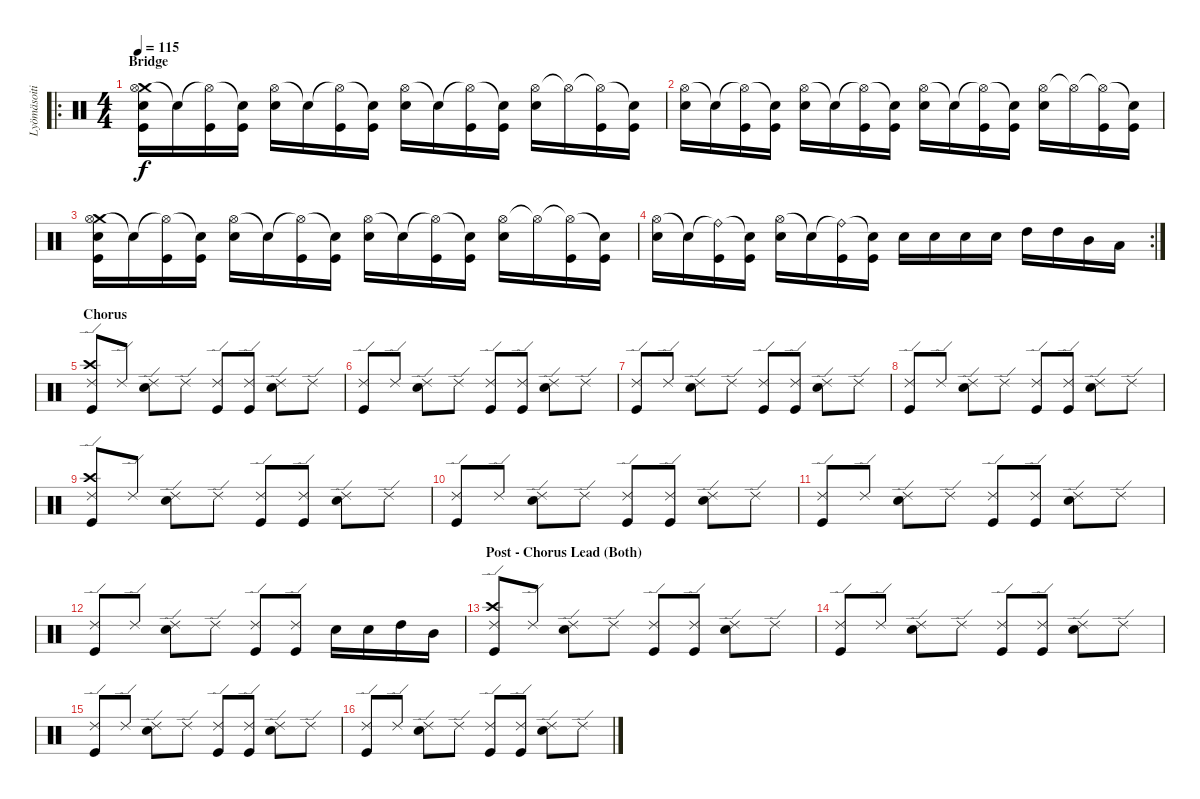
\track ("Lyömäsoitin" "Lyömäsoiti") {instrument percussion}
\staff {score}
\articulation defaults
\ro
\ts (4 4)
\section ("" "Bridge")
\tempo 115
\clef neutral
\ks c
("Crash medium (hit)" "Hi-Hat (open)" "Snare (hit) 2" "Kick (hit)").16{dy f} "Snare (hit)"{t}.16 ("Hi-Hat (open)"{t} "Kick (hit)").16 ("Snare (hit)"{t} "Kick (hit)").16 ("Hi-Hat (open)" "Snare (hit) 2").16 "Snare (hit)"{t}.16 ("Hi-Hat (open)"{t} "Kick (hit)").16 ("Snare (hit)"{t} "Kick (hit)").16 ("Hi-Hat (open)" "Snare (hit) 2").16 "Snare (hit)"{t}.16 ("Hi-Hat (open)"{t} "Kick (hit)").16 ("Snare (hit)"{t} "Kick (hit)").16 ("Hi-Hat (open)" "Snare (hit) 2").16 "Hi-Hat (open)"{t}.16 ("Hi-Hat (open)"{t} "Kick (hit)").16 ("Snare (hit)"{t} "Kick (hit)").16 |
("Hi-Hat (open)" "Snare (hit) 2").16 "Snare (hit)"{t}.16 ("Hi-Hat (open)"{t} "Kick (hit)").16 ("Snare (hit)"{t} "Kick (hit)").16 ("Hi-Hat (open)" "Snare (hit) 2").16 "Snare (hit)"{t}.16 ("Hi-Hat (open)"{t} "Kick (hit)").16 ("Snare (hit)"{t} "Kick (hit)").16 ("Hi-Hat (open)" "Snare (hit) 2").16 "Snare (hit)"{t}.16 ("Hi-Hat (open)"{t} "Kick (hit)").16 ("Snare (hit)"{t} "Kick (hit)").16 ("Hi-Hat (open)" "Snare (hit) 2").16 "Hi-Hat (open)"{t}.16 ("Hi-Hat (open)"{t} "Kick (hit)").16 ("Snare (hit)"{t} "Kick (hit)").16 |
("Crash medium (hit)" "Hi-Hat (open)" "Snare (hit) 2" "Kick (hit)").16 "Snare (hit)"{t}.16 ("Hi-Hat (open)"{t} "Kick (hit)").16 ("Snare (hit)"{t} "Kick (hit)").16 ("Hi-Hat (open)" "Snare (hit) 2").16 "Snare (hit)"{t}.16 ("Hi-Hat (open)"{t} "Kick (hit)").16 ("Snare (hit)"{t} "Kick (hit)").16 ("Hi-Hat (open)" "Snare (hit) 2").16 "Snare (hit)"{t}.16 ("Hi-Hat (open)"{t} "Kick (hit)").16 ("Snare (hit)"{t} "Kick (hit)").16 ("Hi-Hat (open)" "Snare (hit) 2").16 "Hi-Hat (open)"{t}.16 ("Hi-Hat (open)"{t} "Kick (hit)").16 ("Snare (hit)"{t} "Kick (hit)").16 |
\rc 2
("Hi-Hat (open)" "Snare (hit) 2").16 "Snare (hit)"{t}.16 ("Ride (bell)"{t} "Kick (hit)").16 ("Snare (hit)"{t} "Kick (hit)").16 ("Hi-Hat (open)" "Snare (hit) 2").16 "Snare (hit)"{t}.16 ("Ride (bell)"{t} "Kick (hit)").16 ("Snare (hit)"{t} "Kick (hit)").16 "Snare (hit) 2".16 "Snare (hit) 2".16 "Snare (hit) 2".16 "Snare (hit) 2".16 "High Tom (hit)".16 "High Tom (hit)".16 "Mid Tom (hit)".16 "Low Tom (hit)".16 |
\section ("" "Chorus")
("Crash high (hit)" "Ride (edge) 2" "Kick (hit)").8 "Ride (edge) 2".8 ("Ride (edge) 2" "Snare (hit) 2").8 "Ride (edge) 2".8 ("Ride (edge) 2" "Kick (hit)").8 ("Ride (edge) 2" "Kick (hit)").8 ("Ride (edge) 2" "Snare (hit) 2").8 "Ride (edge) 2".8 |
("Ride (edge) 2" "Kick (hit)").8 "Ride (edge) 2".8 ("Ride (edge) 2" "Snare (hit) 2").8 "Ride (edge) 2".8 ("Ride (edge) 2" "Kick (hit)").8 ("Ride (edge) 2" "Kick (hit)").8 ("Ride (edge) 2" "Snare (hit) 2").8 "Ride (edge) 2".8 |
("Ride (edge) 2" "Kick (hit)").8 "Ride (edge) 2".8 ("Ride (edge) 2" "Snare (hit) 2").8 "Ride (edge) 2".8 ("Ride (edge) 2" "Kick (hit)").8 ("Ride (edge) 2" "Kick (hit)").8 ("Ride (edge) 2" "Snare (hit) 2").8 "Ride (edge) 2".8 |
("Ride (edge) 2" "Kick (hit)").8 "Ride (edge) 2".8 ("Ride (edge) 2" "Snare (hit) 2").8 "Ride (edge) 2".8 ("Ride (edge) 2" "Kick (hit)").8 ("Ride (edge) 2" "Kick (hit)").8 ("Ride (edge) 2" "Snare (hit) 2").8 "Ride (edge) 2".8 |
("Crash high (hit)" "Ride (edge) 2" "Kick (hit)").8 "Ride (edge) 2".8 ("Ride (edge) 2" "Snare (hit) 2").8 "Ride (edge) 2".8 ("Ride (edge) 2" "Kick (hit)").8 ("Ride (edge) 2" "Kick (hit)").8 ("Ride (edge) 2" "Snare (hit) 2").8 "Ride (edge) 2".8 |
("Ride (edge) 2" "Kick (hit)").8 "Ride (edge) 2".8 ("Ride (edge) 2" "Snare (hit) 2").8 "Ride (edge) 2".8 ("Ride (edge) 2" "Kick (hit)").8 ("Ride (edge) 2" "Kick (hit)").8 ("Ride (edge) 2" "Snare (hit) 2").8 "Ride (edge) 2".8 |
("Ride (edge) 2" "Kick (hit)").8 "Ride (edge) 2".8 ("Ride (edge) 2" "Snare (hit) 2").8 "Ride (edge) 2".8 ("Ride (edge) 2" "Kick (hit)").8 ("Ride (edge) 2" "Kick (hit)").8 ("Ride (edge) 2" "Snare (hit) 2").8 "Ride (edge) 2".8 |
("Ride (edge) 2" "Kick (hit)").8 "Ride (edge) 2".8 ("Ride (edge) 2" "Snare (hit) 2").8 "Ride (edge) 2".8 ("Ride (edge) 2" "Kick (hit)").8 ("Ride (edge) 2" "Kick (hit)").8 "Snare (hit) 2".16 "Snare (hit) 2".16 "High Tom (hit)".16 "Mid Tom (hit)".16 |
\section ("" "Post - Chorus Lead (Both)")
("Crash high (hit)" "Ride (edge) 2" "Kick (hit)").8 "Ride (edge) 2".8 ("Ride (edge) 2" "Snare (hit) 2").8 "Ride (edge) 2".8 ("Ride (edge) 2" "Kick (hit)").8 ("Ride (edge) 2" "Kick (hit)").8 ("Ride (edge) 2" "Snare (hit) 2").8 "Ride (edge) 2".8 |
("Ride (edge) 2" "Kick (hit)").8 "Ride (edge) 2".8 ("Ride (edge) 2" "Snare (hit) 2").8 "Ride (edge) 2".8 ("Ride (edge) 2" "Kick (hit)").8 ("Ride (edge) 2" "Kick (hit)").8 ("Ride (edge) 2" "Snare (hit) 2").8 "Ride (edge) 2".8 |
("Ride (edge) 2" "Kick (hit)").8 "Ride (edge) 2".8 ("Ride (edge) 2" "Snare (hit) 2").8 "Ride (edge) 2".8 ("Ride (edge) 2" "Kick (hit)").8 ("Ride (edge) 2" "Kick (hit)").8 ("Ride (edge) 2" "Snare (hit) 2").8 "Ride (edge) 2".8 |
("Ride (edge) 2" "Kick (hit)").8 "Ride (edge) 2".8 ("Ride (edge) 2" "Snare (hit) 2").8 "Ride (edge) 2".8 ("Ride (edge) 2" "Kick (hit)").8 ("Ride (edge) 2" "Kick (hit)").8 ("Ride (edge) 2" "Snare (hit) 2").8 "Ride (edge) 2".8
